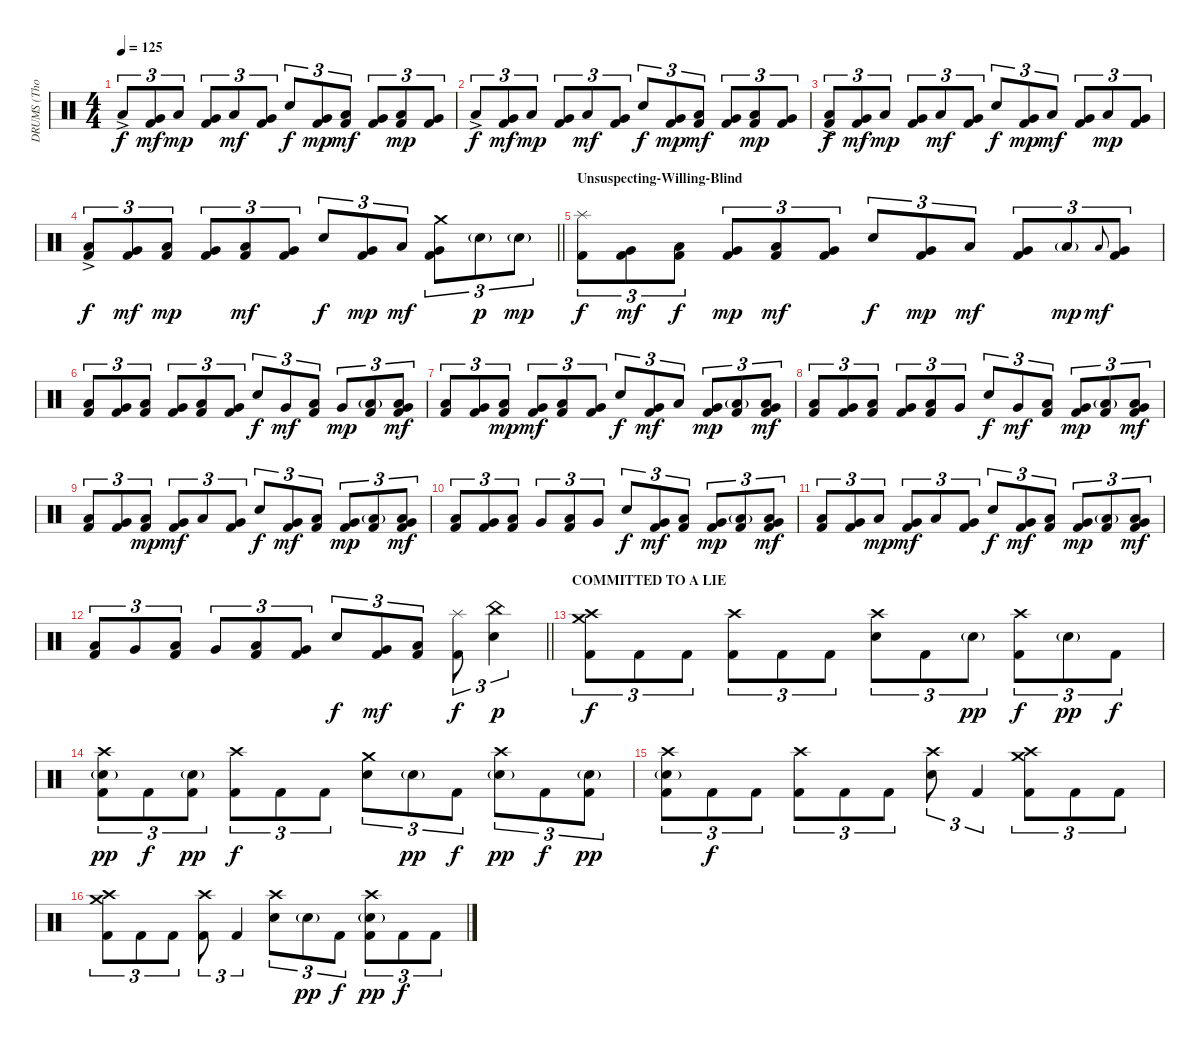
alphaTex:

\track ("DRUMS (Thomas Haake)" "DRUMS (Tho") {instrument percussion}
\staff {score}
\articulation defaults
\ts (4 4)
\tempo 125
\clef neutral
\ks c "Low Floor Tom (hit)"{ac}.8{tu (3 2) dy f}
("Very Low Tom (hit)" "Kick (hit) 2").8{tu (3 2) dy mf} "Low Floor Tom (hit)".8{tu (3 2) dy mp} ("Very Low Tom (hit)" "Kick (hit) 2").8{tu (3 2)} "Low Floor Tom (hit)".8{tu (3 2) dy mf} ("Very Low Tom (hit)" "Kick (hit) 2").8{tu (3 2)} "Electric Snare (hit)".8{tu (3 2) dy f} ("Very Low Tom (hit)" "Kick (hit) 2").8{tu (3 2) dy mp} ("Low Floor Tom (hit)" "Kick (hit) 2").8{tu (3 2) dy mf} ("Very Low Tom (hit)" "Kick (hit) 2").8{tu (3 2)} ("Low Floor Tom (hit)" "Kick (hit) 2").8{tu (3 2) dy mp} ("Very Low Tom (hit)" "Kick (hit) 2").8{tu (3 2)} |
"Low Floor Tom (hit)"{ac}.8{tu (3 2) dy f} ("Very Low Tom (hit)" "Kick (hit) 2").8{tu (3 2) dy mf} "Low Floor Tom (hit)".8{tu (3 2) dy mp} ("Very Low Tom (hit)" "Kick (hit) 2").8{tu (3 2)} "Low Floor Tom (hit)".8{tu (3 2) dy mf} ("Very Low Tom (hit)" "Kick (hit) 2").8{tu (3 2)} "Electric Snare (hit)".8{tu (3 2) dy f} ("Very Low Tom (hit)" "Kick (hit) 2").8{tu (3 2) dy mp} ("Low Floor Tom (hit)" "Kick (hit) 2").8{tu (3 2) dy mf} ("Very Low Tom (hit)" "Kick (hit) 2").8{tu (3 2)} ("Low Floor Tom (hit)" "Kick (hit) 2").8{tu (3 2) dy mp} ("Very Low Tom (hit)" "Kick (hit) 2").8{tu (3 2)} |
("Low Floor Tom (hit)"{ac} "Kick (hit) 2").8{tu (3 2) dy f} ("Very Low Tom (hit)" "Kick (hit) 2").8{tu (3 2) dy mf} "Low Floor Tom (hit)".8{tu (3 2) dy mp} ("Very Low Tom (hit)" "Kick (hit) 2").8{tu (3 2)} "Low Floor Tom (hit)".8{tu (3 2) dy mf} ("Very Low Tom (hit)" "Kick (hit) 2").8{tu (3 2)} "Electric Snare (hit)".8{tu (3 2) dy f} ("Very Low Tom (hit)" "Kick (hit) 2").8{tu (3 2) dy mp} "Low Floor Tom (hit)".8{tu (3 2) dy mf} ("Very Low Tom (hit)" "Kick (hit) 2").8{tu (3 2)} "Low Floor Tom (hit)".8{tu (3 2) dy mp} ("Very Low Tom (hit)" "Kick (hit) 2").8{tu (3 2)} |
\barLineRight lightlight
("Low Floor Tom (hit)"{ac} "Kick (hit) 2").8{tu (3 2) dy f} ("Very Low Tom (hit)" "Kick (hit) 2").8{tu (3 2) dy mf} ("Low Floor Tom (hit)" "Kick (hit) 2").8{tu (3 2) dy mp} ("Very Low Tom (hit)" "Kick (hit) 2").8{tu (3 2)} ("Low Floor Tom (hit)" "Kick (hit) 2").8{tu (3 2) dy mf} ("Very Low Tom (hit)" "Kick (hit) 2").8{tu (3 2)} "Electric Snare (hit)".8{tu (3 2) dy f} ("Very Low Tom (hit)" "Kick (hit) 2").8{tu (3 2) dy mp} "Low Floor Tom (hit)".8{tu (3 2) dy mf} ("Crash medium (hit)" "Very Low Tom (hit)" "Kick (hit) 2").8{tu (3 2)} "Electric Snare (hit)"{g}.8{tu (3 2) dy p} "Electric Snare (hit)"{g}.8{tu (3 2) dy mp} |
\section ("" "Unsuspecting-Willing-Blind")
("Splash (hit)" "Kick (hit) 2").8{tu (3 2) dy f} ("Very Low Tom (hit)" "Kick (hit) 2").8{tu (3 2) dy mf} ("Low Tom (hit)" "Kick (hit) 2").8{tu (3 2) dy f} ("Very Low Tom (hit)" "Kick (hit) 2").8{tu (3 2) dy mp} ("Low Floor Tom (hit)" "Kick (hit) 2").8{tu (3 2) dy mf} ("Very Low Tom (hit)" "Kick (hit) 2").8{tu (3 2)} "Electric Snare (hit)".8{tu (3 2) dy f} ("Very Low Tom (hit)" "Kick (hit) 2").8{tu (3 2) dy mp} "Low Floor Tom (hit)".8{tu (3 2) dy mf} ("Very Low Tom (hit)" "Kick (hit) 2").8{tu (3 2)} "Low Floor Tom (hit)"{g}.8{tu (3 2) dy mp} "Low Tom (hit)".8{gr onbeat dy mf} ("Very Low Tom (hit)" "Kick (hit) 2").8{tu (3 2)} |
("Low Floor Tom (hit)" "Kick (hit) 2").8{tu (3 2)} ("Very Low Tom (hit)" "Kick (hit) 2").8{tu (3 2)} ("Low Floor Tom (hit)" "Kick (hit) 2").8{tu (3 2)} ("Very Low Tom (hit)" "Kick (hit) 2").8{tu (3 2)} ("Low Floor Tom (hit)" "Kick (hit) 2").8{tu (3 2)} ("Very Low Tom (hit)" "Kick (hit) 2").8{tu (3 2)} "Electric Snare (hit)".8{tu (3 2) dy f} "Very Low Tom (hit)".8{tu (3 2) dy mf} ("Low Floor Tom (hit)" "Kick (hit) 2").8{tu (3 2)} "Very Low Tom (hit)".8{tu (3 2) dy mp} ("Low Floor Tom (hit)"{g} "Kick (hit) 2").8{tu (3 2)} ("Low Tom (hit)" "Very Low Tom (hit)" "Kick (hit) 2").8{tu (3 2) bd 30 dy mf} |
("Low Floor Tom (hit)" "Kick (hit) 2").8{tu (3 2)} ("Very Low Tom (hit)" "Kick (hit) 2").8{tu (3 2)} ("Low Tom (hit)" "Kick (hit) 2").8{tu (3 2) dy mp} ("Very Low Tom (hit)" "Kick (hit) 2").8{tu (3 2) dy mf} ("Low Floor Tom (hit)" "Kick (hit) 2").8{tu (3 2)} ("Very Low Tom (hit)" "Kick (hit) 2").8{tu (3 2)} "Electric Snare (hit)".8{tu (3 2) dy f} ("Very Low Tom (hit)" "Kick (hit) 2").8{tu (3 2) dy mf} "Low Floor Tom (hit)".8{tu (3 2)} ("Very Low Tom (hit)" "Kick (hit) 2").8{tu (3 2) dy mp} ("Low Floor Tom (hit)"{g} "Kick (hit) 2").8{tu (3 2)} ("Low Tom (hit)" "Very Low Tom (hit)" "Kick (hit) 2").8{tu (3 2) bd 30 dy mf} |
("Low Floor Tom (hit)" "Kick (hit) 2").8{tu (3 2)} ("Very Low Tom (hit)" "Kick (hit) 2").8{tu (3 2)} ("Low Floor Tom (hit)" "Kick (hit) 2").8{tu (3 2)} ("Very Low Tom (hit)" "Kick (hit) 2").8{tu (3 2)} ("Low Floor Tom (hit)" "Kick (hit) 2").8{tu (3 2)} "Very Low Tom (hit)".8{tu (3 2)} "Electric Snare (hit)".8{tu (3 2) dy f} "Very Low Tom (hit)".8{tu (3 2) dy mf} ("Low Floor Tom (hit)" "Kick (hit) 2").8{tu (3 2)} ("Very Low Tom (hit)" "Kick (hit) 2").8{tu (3 2) dy mp} ("Low Floor Tom (hit)"{g} "Kick (hit) 2").8{tu (3 2)} ("Low Tom (hit)" "Very Low Tom (hit)" "Kick (hit) 2").8{tu (3 2) bd 60 dy mf} |
("Low Floor Tom (hit)" "Kick (hit) 2").8{tu (3 2)} ("Very Low Tom (hit)" "Kick (hit) 2").8{tu (3 2)} ("Low Tom (hit)" "Kick (hit) 2").8{tu (3 2) dy mp} ("Very Low Tom (hit)" "Kick (hit) 2").8{tu (3 2) dy mf} "Low Floor Tom (hit)".8{tu (3 2)} ("Very Low Tom (hit)" "Kick (hit) 2").8{tu (3 2)} "Electric Snare (hit)".8{tu (3 2) dy f} ("Very Low Tom (hit)" "Kick (hit) 2").8{tu (3 2) dy mf} ("Low Floor Tom (hit)" "Kick (hit) 2").8{tu (3 2)} ("Very Low Tom (hit)" "Kick (hit) 2").8{tu (3 2) dy mp} ("Low Floor Tom (hit)"{g} "Kick (hit) 2").8{tu (3 2)} ("Low Tom (hit)" "Very Low Tom (hit)" "Kick (hit) 2").8{tu (3 2) bd 30 dy mf} |
("Low Floor Tom (hit)" "Kick (hit) 2").8{tu (3 2)} ("Very Low Tom (hit)" "Kick (hit) 2").8{tu (3 2)} ("Low Floor Tom (hit)" "Kick (hit) 2").8{tu (3 2)} "Very Low Tom (hit)".8{tu (3 2)} ("Low Floor Tom (hit)" "Kick (hit) 2").8{tu (3 2)} "Very Low Tom (hit)".8{tu (3 2)} "Electric Snare (hit)".8{tu (3 2) dy f} ("Very Low Tom (hit)" "Kick (hit) 2").8{tu (3 2) dy mf} ("Low Floor Tom (hit)" "Kick (hit) 2").8{tu (3 2)} ("Very Low Tom (hit)" "Kick (hit) 2").8{tu (3 2) dy mp} ("Low Floor Tom (hit)"{g} "Kick (hit) 2").8{tu (3 2)} ("Low Tom (hit)" "Very Low Tom (hit)" "Kick (hit) 2").8{tu (3 2) bd 30 dy mf} |
("Low Floor Tom (hit)" "Kick (hit) 2").8{tu (3 2)} ("Very Low Tom (hit)" "Kick (hit) 2").8{tu (3 2)} "Low Tom (hit)".8{tu (3 2) dy mp} ("Very Low Tom (hit)" "Kick (hit) 2").8{tu (3 2) dy mf} "Low Floor Tom (hit)".8{tu (3 2)} ("Very Low Tom (hit)" "Kick (hit) 2").8{tu (3 2)} "Electric Snare (hit)".8{tu (3 2) dy f} ("Very Low Tom (hit)" "Kick (hit) 2").8{tu (3 2) dy mf} ("Low Floor Tom (hit)" "Kick (hit) 2").8{tu (3 2)} ("Very Low Tom (hit)" "Kick (hit) 2").8{tu (3 2) dy mp} ("Low Floor Tom (hit)"{g} "Kick (hit) 2").8{tu (3 2)} ("Low Tom (hit)" "Very Low Tom (hit)" "Kick (hit) 2").8{tu (3 2) bd 30 dy mf} |
\barLineRight lightlight
("Low Floor Tom (hit)" "Kick (hit) 2").8{tu (3 2)} "Very Low Tom (hit)".8{tu (3 2)} ("Low Floor Tom (hit)" "Kick (hit) 2").8{tu (3 2)} "Very Low Tom (hit)".8{tu (3 2)} ("Low Floor Tom (hit)" "Kick (hit) 2").8{tu (3 2)} ("Very Low Tom (hit)" "Kick (hit) 2").8{tu (3 2)} "Electric Snare (hit)".8{tu (3 2) dy f} ("Very Low Tom (hit)" "Kick (hit) 2").8{tu (3 2) dy mf} ("Low Floor Tom (hit)" "Kick (hit) 2").8{tu (3 2)} ("Splash (hit)" "Kick (hit) 2").8{tu (3 2) dy f} ("China (hit)" "Electric Snare (hit)").4{tu (3 2) dy p} |
\section ("" "COMMITTED TO A LIE")
("Crash high (hit)" "Crash medium (hit)" "Kick (hit) 2").8{tu (3 2) dy f} "Kick (hit) 2".8{tu (3 2)} "Kick (hit) 2".8{tu (3 2)} ("Crash high (hit)" "Kick (hit) 2").8{tu (3 2)} "Kick (hit) 2".8{tu (3 2)} "Kick (hit) 2".8{tu (3 2)} ("Crash high (hit)" "Electric Snare (hit)").8{tu (3 2)} "Kick (hit) 2".8{tu (3 2)} "Electric Snare (hit)"{g}.8{tu (3 2) dy pp} ("Crash high (hit)" "Kick (hit) 2").8{tu (3 2) dy f} "Electric Snare (hit)"{g}.8{tu (3 2) dy pp} "Kick (hit) 2".8{tu (3 2) dy f} |
("Crash high (hit)" "Electric Snare (hit)"{g} "Kick (hit) 2").8{tu (3 2) dy pp} "Kick (hit) 2".8{tu (3 2) dy f} ("Electric Snare (hit)"{g} "Kick (hit) 2").8{tu (3 2) dy pp} ("Crash high (hit)" "Kick (hit) 2").8{tu (3 2) dy f} "Kick (hit) 2".8{tu (3 2)} "Kick (hit) 2".8{tu (3 2)} ("Crash medium (hit)" "Electric Snare (hit)").8{tu (3 2)} "Electric Snare (hit)"{g}.8{tu (3 2) dy pp} "Kick (hit) 2".8{tu (3 2) dy f} ("Crash high (hit)" "Electric Snare (hit)"{g}).8{tu (3 2) dy pp} "Kick (hit) 2".8{tu (3 2) dy f} ("Electric Snare (hit)"{g} "Kick (hit) 2").8{tu (3 2) dy pp} |
("Crash high (hit)" "Electric Snare (hit)"{g} "Kick (hit) 2").8{tu (3 2)} "Kick (hit) 2".8{tu (3 2) dy f} "Kick (hit) 2".8{tu (3 2)} ("Crash high (hit)" "Kick (hit) 2").8{tu (3 2)} "Kick (hit) 2".8{tu (3 2)} "Kick (hit) 2".8{tu (3 2)} ("Crash high (hit)" "Electric Snare (hit)").8{tu (3 2)} "Kick (hit) 2".4{tu (3 2)} ("Crash high (hit)" "Crash medium (hit)" "Kick (hit) 2").8{tu (3 2)} "Kick (hit) 2".8{tu (3 2)} "Kick (hit) 2".8{tu (3 2)} |
("Crash high (hit)" "Crash medium (hit)" "Kick (hit) 2").8{tu (3 2)} "Kick (hit) 2".8{tu (3 2)} "Kick (hit) 2".8{tu (3 2)} ("Crash high (hit)" "Kick (hit) 2").8{tu (3 2)} "Kick (hit) 2".4{tu (3 2)} ("Crash high (hit)" "Electric Snare (hit)").8{tu (3 2)} "Electric Snare (hit)"{g}.8{tu (3 2) dy pp} "Kick (hit) 2".8{tu (3 2) dy f} ("Crash high (hit)" "Electric Snare (hit)"{g} "Kick (hit) 2").8{tu (3 2) dy pp} "Kick (hit) 2".8{tu (3 2) dy f} "Kick (hit) 2".8{tu (3 2)}
